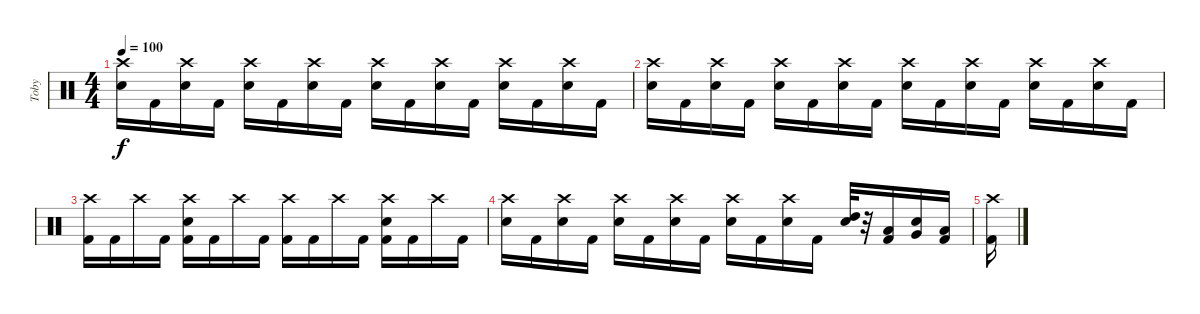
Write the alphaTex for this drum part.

\track ("Toby" "Toby") {instrument percussion}
\staff {score}
\articulation defaults
\ts (4 4)
\tempo 100
\clef neutral
\ks c
("Crash high (hit)" "Electric Snare (hit)").16{dy f} "Kick (hit) 2".16 ("Crash high (hit)" "Electric Snare (hit)").16 "Kick (hit) 2".16 ("Crash high (hit)" "Electric Snare (hit)").16 "Kick (hit) 2".16 ("Crash high (hit)" "Electric Snare (hit)").16 "Kick (hit) 2".16 ("Crash high (hit)" "Electric Snare (hit)").16 "Kick (hit) 2".16 ("Crash high (hit)" "Electric Snare (hit)").16 "Kick (hit) 2".16 ("Crash high (hit)" "Electric Snare (hit)").16 "Kick (hit) 2".16 ("Crash high (hit)" "Electric Snare (hit)").16 "Kick (hit) 2".16 |
("Crash high (hit)" "Electric Snare (hit)").16 "Kick (hit) 2".16 ("Crash high (hit)" "Electric Snare (hit)").16 "Kick (hit) 2".16 ("Crash high (hit)" "Electric Snare (hit)").16 "Kick (hit) 2".16 ("Crash high (hit)" "Electric Snare (hit)").16 "Kick (hit) 2".16 ("Crash high (hit)" "Electric Snare (hit)").16 "Kick (hit) 2".16 ("Crash high (hit)" "Electric Snare (hit)").16 "Kick (hit) 2".16 ("Crash high (hit)" "Electric Snare (hit)").16 "Kick (hit) 2".16 ("Crash high (hit)" "Electric Snare (hit)").16 "Kick (hit) 2".16 |
("Crash high (hit)" "Kick (hit) 2").16 "Kick (hit) 2".16 "Crash high (hit)".16 "Kick (hit) 2".16 ("Crash high (hit)" "Electric Snare (hit)" "Kick (hit) 2").16 "Kick (hit) 2".16 "Crash high (hit)".16 "Kick (hit) 2".16 ("Crash high (hit)" "Kick (hit) 2").16 "Kick (hit) 2".16 "Crash high (hit)".16 "Kick (hit) 2".16 ("Crash high (hit)" "Electric Snare (hit)" "Kick (hit) 2").16 "Kick (hit) 2".16 "Crash high (hit)".16 "Kick (hit) 2".16 |
("Crash high (hit)" "Electric Snare (hit)").16 "Kick (hit) 2".16 ("Crash high (hit)" "Electric Snare (hit)").16 "Kick (hit) 2".16 ("Crash high (hit)" "Electric Snare (hit)").16 "Kick (hit) 2".16 ("Crash high (hit)" "Electric Snare (hit)").16 "Kick (hit) 2".16 ("Crash high (hit)" "Electric Snare (hit)").16 "Kick (hit) 2".16 ("Crash high (hit)" "Electric Snare (hit)").16 "Kick (hit) 2".16 ("High Tom (hit)" "Electric Snare (hit)").32 r.32 ("Low Floor Tom (hit)" "Kick (hit) 2").16 ("Very Low Tom (hit)" "Electric Snare (hit)").16 ("Low Tom (hit)" "Kick (hit) 2").16 |
("Crash high (hit)" "Kick (hit) 2").16
